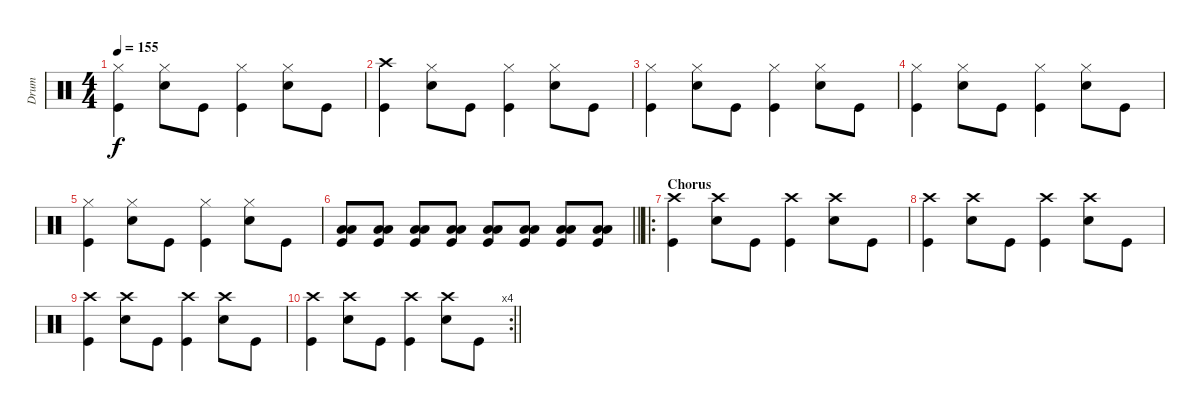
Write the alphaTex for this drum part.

\track ("Drum" "Drum") {instrument percussion}
\staff {score}
\articulation defaults
\ts (4 4)
\tempo 155
\clef neutral
\ks c
("Kick (hit)" "Hi-Hat (closed)").4{dy f} ("Hi-Hat (closed)" "Snare (hit) 2").8 "Kick (hit)".8 ("Hi-Hat (closed)" "Kick (hit)").4 ("Snare (hit) 2" "Hi-Hat (closed)").8 "Kick (hit)".8 |
("Crash high (hit)" "Kick (hit)").4 ("Hi-Hat (closed)" "Snare (hit) 2").8 "Kick (hit)".8 ("Hi-Hat (closed)" "Kick (hit)").4 ("Snare (hit) 2" "Hi-Hat (closed)").8 "Kick (hit)".8 |
("Kick (hit)" "Hi-Hat (closed)").4 ("Hi-Hat (closed)" "Snare (hit) 2").8 "Kick (hit)".8 ("Hi-Hat (closed)" "Kick (hit)").4 ("Snare (hit) 2" "Hi-Hat (closed)").8 "Kick (hit)".8 |
("Kick (hit)" "Hi-Hat (closed)").4 ("Hi-Hat (closed)" "Snare (hit) 2").8 "Kick (hit)".8 ("Hi-Hat (closed)" "Kick (hit)").4 ("Snare (hit) 2" "Hi-Hat (closed)").8 "Kick (hit)".8 |
("Kick (hit)" "Hi-Hat (closed)").4 ("Hi-Hat (closed)" "Snare (hit) 2").8 "Kick (hit)".8 ("Hi-Hat (closed)" "Kick (hit)").4 ("Snare (hit) 2" "Hi-Hat (closed)").8 "Kick (hit)".8 |
\barLineRight lightlight
("Kick (hit)" "Low Tom (hit)" "Low Tom (hit)").8 ("Kick (hit)" "Low Tom (hit)" "Low Tom (hit)").8 ("Kick (hit)" "Low Tom (hit)" "Low Tom (hit)").8 ("Kick (hit)" "Low Tom (hit)" "Low Tom (hit)").8 ("Kick (hit)" "Low Tom (hit)" "Low Tom (hit)").8 ("Kick (hit)" "Low Tom (hit)" "Low Tom (hit)").8 ("Kick (hit)" "Low Tom (hit)" "Low Tom (hit)").8 ("Kick (hit)" "Low Tom (hit)" "Low Tom (hit)").8 |
\ro
\section ("" "Chorus")
("Crash high (hit)" "Kick (hit)").4 ("Crash high (hit)" "Snare (hit) 2").8 "Kick (hit)".8 ("Crash high (hit)" "Kick (hit)").4 ("Crash high (hit)" "Snare (hit) 2").8 "Kick (hit)".8 |
("Crash high (hit)" "Kick (hit)").4 ("Crash high (hit)" "Snare (hit) 2").8 "Kick (hit)".8 ("Crash high (hit)" "Kick (hit)").4 ("Crash high (hit)" "Snare (hit) 2").8 "Kick (hit)".8 |
("Crash high (hit)" "Kick (hit)").4 ("Crash high (hit)" "Snare (hit) 2").8 "Kick (hit)".8 ("Crash high (hit)" "Kick (hit)").4 ("Crash high (hit)" "Snare (hit) 2").8 "Kick (hit)".8 |
\rc 4
\barLineRight lightlight
("Crash high (hit)" "Kick (hit)").4 ("Crash high (hit)" "Snare (hit) 2").8 "Kick (hit)".8 ("Crash high (hit)" "Kick (hit)").4 ("Crash high (hit)" "Snare (hit) 2").8 "Kick (hit)".8
